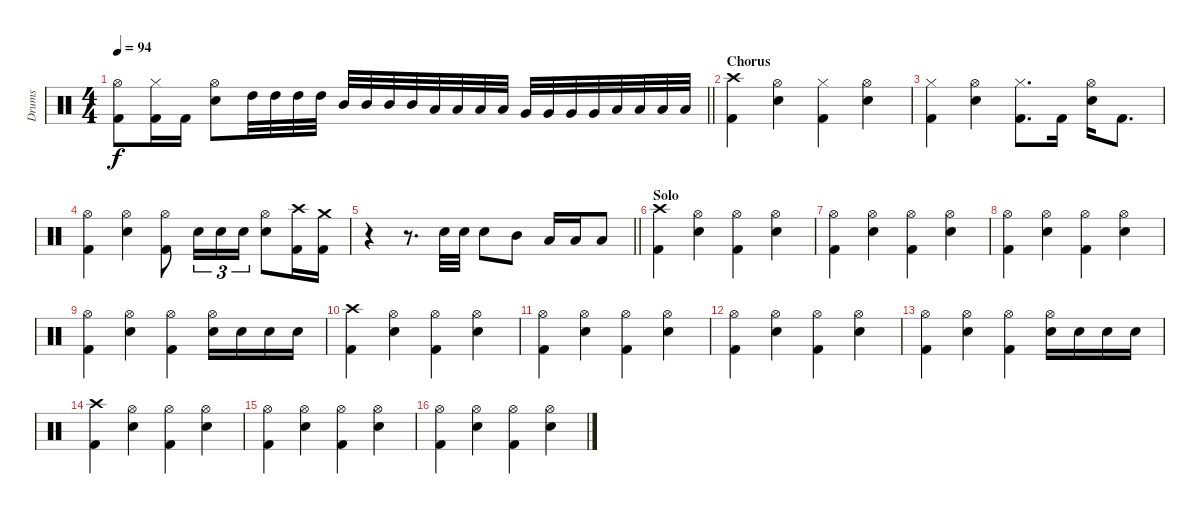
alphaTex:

\track ("Drums" "Drums") {instrument percussion}
\staff {score}
\articulation defaults
\ts (4 4)
\tempo 94
\clef neutral
\barLineRight lightlight
\ks c
("Hi-Hat (open)" "Kick (hit) 2").8{dy f} ("Hi-Hat (closed)" "Kick (hit) 2").16 "Kick (hit) 2".16 ("Hi-Hat (open)" "Snare (hit) 2").8 "High Tom (hit)".32 "High Tom (hit)".32 "High Tom (hit)".32 "High Tom (hit)".32 "Mid Tom (hit)".32 "Mid Tom (hit)".32 "Mid Tom (hit)".32 "Mid Tom (hit)".32 "Low Tom (hit)".32 "Low Tom (hit)".32 "Low Tom (hit)".32 "Low Tom (hit)".32 "Very Low Tom (hit)".32 "Very Low Tom (hit)".32 "Very Low Tom (hit)".32 "Very Low Tom (hit)".32 "Low Floor Tom (hit)".32 "Low Floor Tom (hit)".32 "Low Floor Tom (hit)".32 "Low Floor Tom (hit)".32 |
\section ("" "Chorus")
("Crash high (hit)" "Kick (hit) 2").4 ("Hi-Hat (open)" "Snare (hit) 2").4 ("Hi-Hat (closed)" "Kick (hit) 2").4 ("Hi-Hat (open)" "Snare (hit) 2").4 |
("Hi-Hat (closed)" "Kick (hit) 2").4 ("Hi-Hat (open)" "Snare (hit) 2").4 ("Hi-Hat (closed)" "Kick (hit) 2").8{d} "Kick (hit) 2".16 ("Hi-Hat (open)" "Snare (hit) 2").16 "Kick (hit) 2".8{d} |
("Hi-Hat (open)" "Kick (hit) 2").4 ("Hi-Hat (open)" "Snare (hit) 2").4 ("Hi-Hat (open)" "Kick (hit) 2").8 "Snare (hit) 2".16{tu (3 2)} "Snare (hit) 2".16{tu (3 2)} "Snare (hit) 2".16{tu (3 2)} ("Hi-Hat (open)" "Snare (hit) 2").8 ("Crash high (hit)" "Kick (hit) 2").16 ("Crash medium (hit)" "Kick (hit) 2").16 |
\barLineRight lightlight
r.4 r.8{d} "Snare (hit) 2".32 "Snare (hit) 2".32 "Snare (hit) 2".8 "Mid Tom (hit)".8 "Low Tom (hit)".16 "Low Tom (hit)".16 "Low Tom (hit)".8 |
\section ("" "Solo")
("Crash high (hit)" "Kick (hit) 2").4 ("Hi-Hat (open)" "Snare (hit) 2").4 ("Hi-Hat (open)" "Kick (hit) 2").4 ("Hi-Hat (open)" "Snare (hit) 2").4 |
("Hi-Hat (open)" "Kick (hit) 2").4 ("Hi-Hat (open)" "Snare (hit) 2").4 ("Hi-Hat (open)" "Kick (hit) 2").4 ("Hi-Hat (open)" "Snare (hit) 2").4 |
("Hi-Hat (open)" "Kick (hit) 2").4 ("Hi-Hat (open)" "Snare (hit) 2").4 ("Hi-Hat (open)" "Kick (hit) 2").4 ("Hi-Hat (open)" "Snare (hit) 2").4 |
("Hi-Hat (open)" "Kick (hit) 2").4 ("Hi-Hat (open)" "Snare (hit) 2").4 ("Hi-Hat (open)" "Kick (hit) 2").4 ("Hi-Hat (open)" "Snare (hit) 2").16 "Snare (hit) 2".16 "Snare (hit) 2".16 "Snare (hit) 2".16 |
("Crash high (hit)" "Kick (hit) 2").4 ("Hi-Hat (open)" "Snare (hit) 2").4 ("Hi-Hat (open)" "Kick (hit) 2").4 ("Hi-Hat (open)" "Snare (hit) 2").4 |
("Hi-Hat (open)" "Kick (hit) 2").4 ("Hi-Hat (open)" "Snare (hit) 2").4 ("Hi-Hat (open)" "Kick (hit) 2").4 ("Hi-Hat (open)" "Snare (hit) 2").4 |
("Hi-Hat (open)" "Kick (hit) 2").4 ("Hi-Hat (open)" "Snare (hit) 2").4 ("Hi-Hat (open)" "Kick (hit) 2").4 ("Hi-Hat (open)" "Snare (hit) 2").4 |
("Hi-Hat (open)" "Kick (hit) 2").4 ("Hi-Hat (open)" "Snare (hit) 2").4 ("Hi-Hat (open)" "Kick (hit) 2").4 ("Hi-Hat (open)" "Snare (hit) 2").16 "Snare (hit) 2".16 "Snare (hit) 2".16 "Snare (hit) 2".16 |
("Crash high (hit)" "Kick (hit) 2").4 ("Hi-Hat (open)" "Snare (hit) 2").4 ("Hi-Hat (open)" "Kick (hit) 2").4 ("Hi-Hat (open)" "Snare (hit) 2").4 |
("Hi-Hat (open)" "Kick (hit) 2").4 ("Hi-Hat (open)" "Snare (hit) 2").4 ("Hi-Hat (open)" "Kick (hit) 2").4 ("Hi-Hat (open)" "Snare (hit) 2").4 |
("Hi-Hat (open)" "Kick (hit) 2").4 ("Hi-Hat (open)" "Snare (hit) 2").4 ("Hi-Hat (open)" "Kick (hit) 2").4 ("Hi-Hat (open)" "Snare (hit) 2").4
